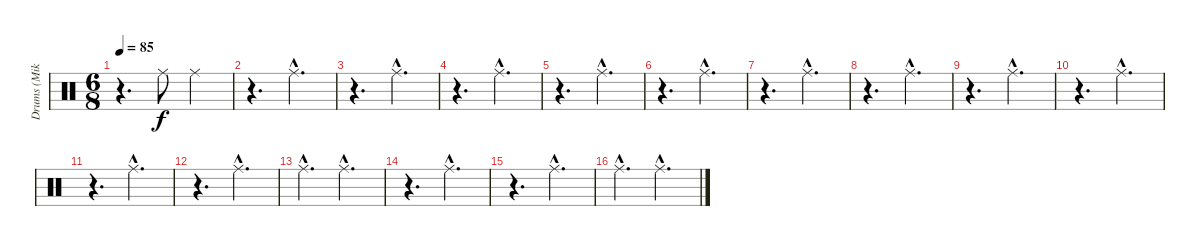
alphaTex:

\track ("Drums (Mike Joyce)" "Drums (Mik") {instrument percussion}
\staff {score}
\articulation defaults
\ts (6 8)
\tempo 85
\clef neutral
\ks c
r.4{d dy f} "Ride (middle)".8 "Ride (middle)".4 |
r.4{d} "Ride (middle)"{hac}.4{d} |
r.4{d} "Ride (middle)"{hac}.4{d} |
r.4{d} "Ride (middle)"{hac}.4{d} |
r.4{d} "Ride (middle)"{hac}.4{d} |
r.4{d} "Ride (middle)"{hac}.4{d} |
r.4{d} "Ride (middle)"{hac}.4{d} |
r.4{d} "Ride (middle)"{hac}.4{d} |
r.4{d} "Ride (middle)"{hac}.4{d} |
r.4{d} "Ride (middle)"{hac}.4{d} |
r.4{d} "Ride (middle)"{hac}.4{d} |
r.4{d} "Ride (middle)"{hac}.4{d} |
"Ride (middle)"{hac}.4{d} "Ride (middle)"{hac}.4{d} |
r.4{d} "Ride (middle)"{hac}.4{d} |
r.4{d} "Ride (middle)"{hac}.4{d} |
"Ride (middle)"{hac}.4{d} "Ride (middle)"{hac}.4{d}
